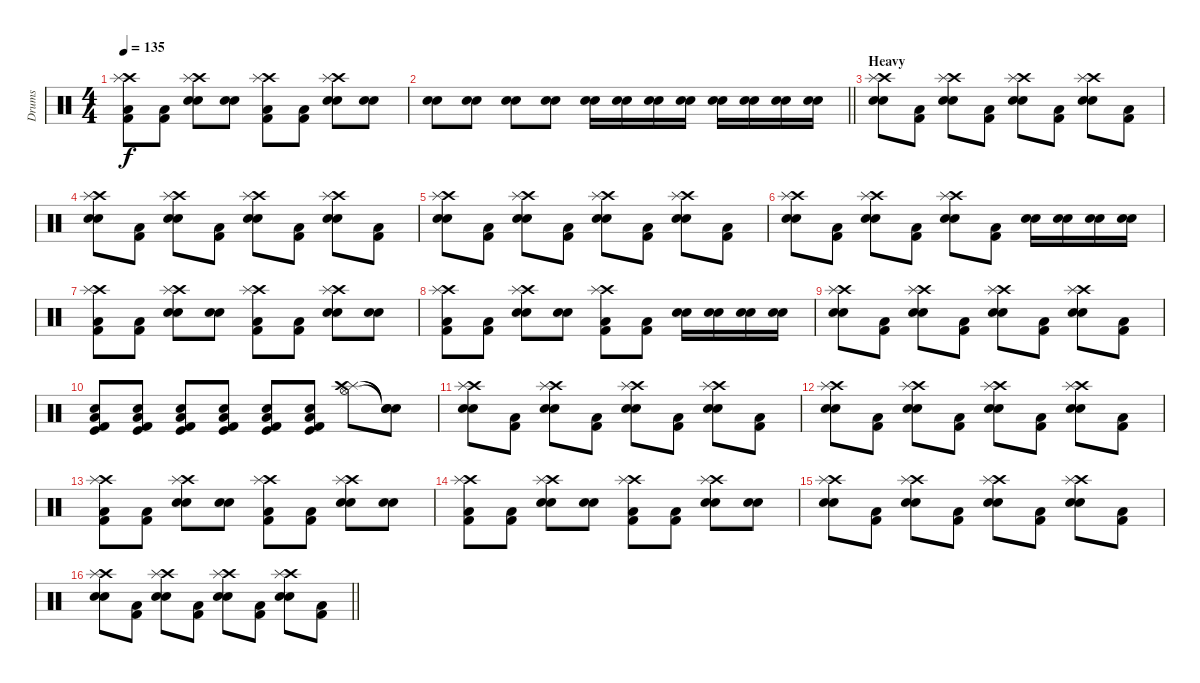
\track ("Drums" "Drums") {instrument percussion}
\staff {score}
\articulation defaults
\ts (4 4)
\tempo 135
\clef neutral
\ks c
("Crash high (hit)" "Splash (hit)" "Kick (hit) 2" "Low Floor Tom (hit)").8{dy f} ("Kick (hit) 2" "Low Floor Tom (hit)").8 ("Crash high (hit)" "Splash (hit)" "Electric Snare (hit)" "Electric Snare (hit)").8 ("Electric Snare (hit)" "Electric Snare (hit)").8 ("Crash high (hit)" "Splash (hit)" "Kick (hit) 2" "Low Floor Tom (hit)").8 ("Kick (hit) 2" "Low Floor Tom (hit)").8 ("Crash high (hit)" "Splash (hit)" "Electric Snare (hit)" "Electric Snare (hit)").8 ("Electric Snare (hit)" "Electric Snare (hit)").8 |
\barLineRight lightlight
("Electric Snare (hit)" "Electric Snare (hit)").8 ("Electric Snare (hit)" "Electric Snare (hit)").8 ("Electric Snare (hit)" "Electric Snare (hit)").8 ("Electric Snare (hit)" "Electric Snare (hit)").8 ("Electric Snare (hit)" "Snare (hit) 2").16 ("Electric Snare (hit)" "Snare (hit) 2").16 ("Electric Snare (hit)" "Snare (hit) 2").16 ("Electric Snare (hit)" "Snare (hit) 2").16 ("Electric Snare (hit)" "Snare (hit) 2").16 ("Electric Snare (hit)" "Snare (hit) 2").16 ("Electric Snare (hit)" "Snare (hit) 2").16 ("Electric Snare (hit)" "Snare (hit) 2").16 |
\section ("" "Heavy")
("Crash high (hit)" "Splash (hit)" "Electric Snare (hit)" "Electric Snare (hit)").8 ("Kick (hit) 2" "Low Floor Tom (hit)").8 ("Crash high (hit)" "Splash (hit)" "Electric Snare (hit)" "Electric Snare (hit)").8 ("Kick (hit) 2" "Low Floor Tom (hit)").8 ("Crash high (hit)" "Splash (hit)" "Electric Snare (hit)" "Electric Snare (hit)").8 ("Kick (hit) 2" "Low Floor Tom (hit)").8 ("Crash high (hit)" "Splash (hit)" "Electric Snare (hit)" "Electric Snare (hit)").8 ("Kick (hit) 2" "Low Floor Tom (hit)").8 |
("Crash high (hit)" "Splash (hit)" "Electric Snare (hit)" "Electric Snare (hit)").8 ("Kick (hit) 2" "Low Floor Tom (hit)").8 ("Crash high (hit)" "Splash (hit)" "Electric Snare (hit)" "Electric Snare (hit)").8 ("Kick (hit) 2" "Low Floor Tom (hit)").8 ("Crash high (hit)" "Splash (hit)" "Electric Snare (hit)" "Electric Snare (hit)").8 ("Kick (hit) 2" "Low Floor Tom (hit)").8 ("Crash high (hit)" "Splash (hit)" "Electric Snare (hit)" "Electric Snare (hit)").8 ("Kick (hit) 2" "Low Floor Tom (hit)").8 |
("Crash high (hit)" "Splash (hit)" "Electric Snare (hit)" "Electric Snare (hit)").8 ("Kick (hit) 2" "Low Floor Tom (hit)").8 ("Crash high (hit)" "Splash (hit)" "Electric Snare (hit)" "Electric Snare (hit)").8 ("Kick (hit) 2" "Low Floor Tom (hit)").8 ("Crash high (hit)" "Splash (hit)" "Electric Snare (hit)" "Electric Snare (hit)").8 ("Kick (hit) 2" "Low Floor Tom (hit)").8 ("Crash high (hit)" "Splash (hit)" "Electric Snare (hit)" "Electric Snare (hit)").8 ("Kick (hit) 2" "Low Floor Tom (hit)").8 |
("Crash high (hit)" "Splash (hit)" "Electric Snare (hit)" "Electric Snare (hit)").8 ("Kick (hit) 2" "Low Floor Tom (hit)").8 ("Crash high (hit)" "Splash (hit)" "Electric Snare (hit)" "Electric Snare (hit)").8 ("Kick (hit) 2" "Low Floor Tom (hit)").8 ("Crash high (hit)" "Splash (hit)" "Electric Snare (hit)" "Electric Snare (hit)").8 ("Kick (hit) 2" "Low Floor Tom (hit)").8 ("Electric Snare (hit)" "Snare (hit) 2").16 ("Electric Snare (hit)" "Snare (hit) 2").16 ("Electric Snare (hit)" "Snare (hit) 2").16 ("Electric Snare (hit)" "Snare (hit) 2").16 |
("Crash high (hit)" "Splash (hit)" "Kick (hit) 2" "Low Floor Tom (hit)").8 ("Kick (hit) 2" "Low Floor Tom (hit)").8 ("Crash high (hit)" "Splash (hit)" "Electric Snare (hit)" "Electric Snare (hit)").8 ("Electric Snare (hit)" "Electric Snare (hit)").8 ("Crash high (hit)" "Splash (hit)" "Kick (hit) 2" "Low Floor Tom (hit)").8 ("Kick (hit) 2" "Low Floor Tom (hit)").8 ("Crash high (hit)" "Splash (hit)" "Electric Snare (hit)" "Electric Snare (hit)").8 ("Electric Snare (hit)" "Electric Snare (hit)").8 |
("Crash high (hit)" "Splash (hit)" "Kick (hit) 2" "Low Floor Tom (hit)").8 ("Kick (hit) 2" "Low Floor Tom (hit)").8 ("Crash high (hit)" "Splash (hit)" "Electric Snare (hit)" "Electric Snare (hit)").8 ("Electric Snare (hit)" "Electric Snare (hit)").8 ("Crash high (hit)" "Splash (hit)" "Kick (hit) 2" "Low Floor Tom (hit)").8 ("Kick (hit) 2" "Low Floor Tom (hit)").8 ("Electric Snare (hit)" "Snare (hit) 2").16 ("Electric Snare (hit)" "Snare (hit) 2").16 ("Electric Snare (hit)" "Snare (hit) 2").16 ("Electric Snare (hit)" "Snare (hit) 2").16 |
("Crash high (hit)" "Splash (hit)" "Electric Snare (hit)" "Electric Snare (hit)").8 ("Kick (hit) 2" "Low Floor Tom (hit)").8 ("Crash high (hit)" "Splash (hit)" "Electric Snare (hit)" "Electric Snare (hit)").8 ("Kick (hit) 2" "Low Floor Tom (hit)").8 ("Crash high (hit)" "Splash (hit)" "Electric Snare (hit)" "Electric Snare (hit)").8 ("Kick (hit) 2" "Low Floor Tom (hit)").8 ("Crash high (hit)" "Splash (hit)" "Electric Snare (hit)" "Electric Snare (hit)").8 ("Kick (hit) 2" "Low Floor Tom (hit)").8 |
("Kick (hit) 2" "Kick (hit)" "Low Tom (hit)" "Electric Snare (hit)").8 ("Kick (hit) 2" "Kick (hit)" "Low Tom (hit)" "Electric Snare (hit)").8 ("Kick (hit) 2" "Kick (hit)" "Low Tom (hit)" "Electric Snare (hit)").8 ("Kick (hit) 2" "Kick (hit)" "Low Tom (hit)" "Electric Snare (hit)").8 ("Kick (hit) 2" "Kick (hit)" "Low Tom (hit)" "Electric Snare (hit)").8 ("Kick (hit) 2" "Kick (hit)" "Low Tom (hit)" "Electric Snare (hit)").8 ("Splash (hit)" "Crash high (hit)" "Hi-Hat (open)").8 ("Snare (hit)"{t} "Snare (hit)"{t} "Snare (hit)"{t}).8 |
("Crash high (hit)" "Splash (hit)" "Electric Snare (hit)" "Electric Snare (hit)").8 ("Kick (hit) 2" "Low Floor Tom (hit)").8 ("Crash high (hit)" "Splash (hit)" "Electric Snare (hit)" "Electric Snare (hit)").8 ("Kick (hit) 2" "Low Floor Tom (hit)").8 ("Crash high (hit)" "Splash (hit)" "Electric Snare (hit)" "Electric Snare (hit)").8 ("Kick (hit) 2" "Low Floor Tom (hit)").8 ("Crash high (hit)" "Splash (hit)" "Electric Snare (hit)" "Electric Snare (hit)").8 ("Kick (hit) 2" "Low Floor Tom (hit)").8 |
("Crash high (hit)" "Splash (hit)" "Electric Snare (hit)" "Electric Snare (hit)").8 ("Kick (hit) 2" "Low Floor Tom (hit)").8 ("Crash high (hit)" "Splash (hit)" "Electric Snare (hit)" "Electric Snare (hit)").8 ("Kick (hit) 2" "Low Floor Tom (hit)").8 ("Crash high (hit)" "Splash (hit)" "Electric Snare (hit)" "Electric Snare (hit)").8 ("Kick (hit) 2" "Low Floor Tom (hit)").8 ("Crash high (hit)" "Splash (hit)" "Electric Snare (hit)" "Electric Snare (hit)").8 ("Kick (hit) 2" "Low Floor Tom (hit)").8 |
("Crash high (hit)" "Splash (hit)" "Kick (hit) 2" "Low Floor Tom (hit)").8 ("Kick (hit) 2" "Low Floor Tom (hit)").8 ("Crash high (hit)" "Splash (hit)" "Electric Snare (hit)" "Electric Snare (hit)").8 ("Electric Snare (hit)" "Electric Snare (hit)").8 ("Crash high (hit)" "Splash (hit)" "Kick (hit) 2" "Low Floor Tom (hit)").8 ("Kick (hit) 2" "Low Floor Tom (hit)").8 ("Crash high (hit)" "Splash (hit)" "Electric Snare (hit)" "Electric Snare (hit)").8 ("Electric Snare (hit)" "Electric Snare (hit)").8 |
("Crash high (hit)" "Splash (hit)" "Kick (hit) 2" "Low Floor Tom (hit)").8 ("Kick (hit) 2" "Low Floor Tom (hit)").8 ("Crash high (hit)" "Splash (hit)" "Electric Snare (hit)" "Electric Snare (hit)").8 ("Electric Snare (hit)" "Electric Snare (hit)").8 ("Crash high (hit)" "Splash (hit)" "Kick (hit) 2" "Low Floor Tom (hit)").8 ("Kick (hit) 2" "Low Floor Tom (hit)").8 ("Crash high (hit)" "Splash (hit)" "Electric Snare (hit)" "Electric Snare (hit)").8 ("Electric Snare (hit)" "Electric Snare (hit)").8 |
("Crash high (hit)" "Splash (hit)" "Electric Snare (hit)" "Electric Snare (hit)").8 ("Kick (hit) 2" "Low Floor Tom (hit)").8 ("Crash high (hit)" "Splash (hit)" "Electric Snare (hit)" "Electric Snare (hit)").8 ("Kick (hit) 2" "Low Floor Tom (hit)").8 ("Crash high (hit)" "Splash (hit)" "Electric Snare (hit)" "Electric Snare (hit)").8 ("Kick (hit) 2" "Low Floor Tom (hit)").8 ("Crash high (hit)" "Splash (hit)" "Electric Snare (hit)" "Electric Snare (hit)").8 ("Kick (hit) 2" "Low Floor Tom (hit)").8 |
\barLineRight lightlight
("Crash high (hit)" "Splash (hit)" "Electric Snare (hit)" "Electric Snare (hit)").8 ("Kick (hit) 2" "Low Floor Tom (hit)").8 ("Crash high (hit)" "Splash (hit)" "Electric Snare (hit)" "Electric Snare (hit)").8 ("Kick (hit) 2" "Low Floor Tom (hit)").8 ("Crash high (hit)" "Splash (hit)" "Electric Snare (hit)" "Electric Snare (hit)").8 ("Kick (hit) 2" "Low Floor Tom (hit)").8 ("Crash high (hit)" "Splash (hit)" "Electric Snare (hit)" "Electric Snare (hit)").8 ("Kick (hit) 2" "Low Floor Tom (hit)").8
